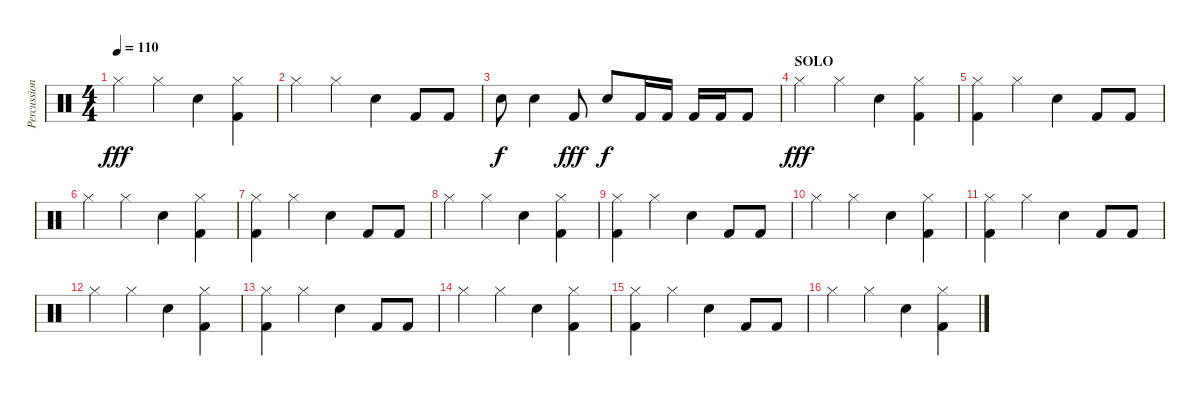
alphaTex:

\track ("Percussion" "Percussion") {instrument percussion}
\staff {score}
\articulation defaults
\ts (4 4)
\tempo 110
\clef neutral
\ks c "Hi-Hat (closed)".4{dy fff} "Hi-Hat (closed)".4 "Electric Snare (hit)".4
("Kick (hit) 2" "Hi-Hat (closed)").4 |
"Hi-Hat (closed)".4 "Hi-Hat (closed)".4 "Electric Snare (hit)".4 "Kick (hit) 2".8 "Kick (hit) 2".8 |
"Snare (hit) 2".8{dy f} "Electric Snare (hit)".4 "Kick (hit) 2".8{dy fff} "Electric Snare (hit)".8{dy f} "Kick (hit) 2".16 "Kick (hit) 2".16 "Kick (hit) 2".16 "Kick (hit) 2".16 "Kick (hit) 2".8 |
\section ("" "SOLO")
"Hi-Hat (closed)".4{dy fff} "Hi-Hat (closed)".4 "Electric Snare (hit)".4 ("Kick (hit) 2" "Hi-Hat (closed)").4 |
("Kick (hit) 2" "Hi-Hat (closed)").4 "Hi-Hat (closed)".4 "Electric Snare (hit)".4 "Kick (hit) 2".8 "Kick (hit) 2".8 |
"Hi-Hat (closed)".4 "Hi-Hat (closed)".4 "Electric Snare (hit)".4 ("Kick (hit) 2" "Hi-Hat (closed)").4 |
("Kick (hit) 2" "Hi-Hat (closed)").4 "Hi-Hat (closed)".4 "Electric Snare (hit)".4 "Kick (hit) 2".8 "Kick (hit) 2".8 |
"Hi-Hat (closed)".4 "Hi-Hat (closed)".4 "Electric Snare (hit)".4 ("Kick (hit) 2" "Hi-Hat (closed)").4 |
("Kick (hit) 2" "Hi-Hat (closed)").4 "Hi-Hat (closed)".4 "Electric Snare (hit)".4 "Kick (hit) 2".8 "Kick (hit) 2".8 |
"Hi-Hat (closed)".4 "Hi-Hat (closed)".4 "Electric Snare (hit)".4 ("Kick (hit) 2" "Hi-Hat (closed)").4 |
("Kick (hit) 2" "Hi-Hat (closed)").4 "Hi-Hat (closed)".4 "Electric Snare (hit)".4 "Kick (hit) 2".8 "Kick (hit) 2".8 |
"Hi-Hat (closed)".4 "Hi-Hat (closed)".4 "Electric Snare (hit)".4 ("Kick (hit) 2" "Hi-Hat (closed)").4 |
("Kick (hit) 2" "Hi-Hat (closed)").4 "Hi-Hat (closed)".4 "Electric Snare (hit)".4 "Kick (hit) 2".8 "Kick (hit) 2".8 |
"Hi-Hat (closed)".4 "Hi-Hat (closed)".4 "Electric Snare (hit)".4 ("Kick (hit) 2" "Hi-Hat (closed)").4 |
("Kick (hit) 2" "Hi-Hat (closed)").4 "Hi-Hat (closed)".4 "Electric Snare (hit)".4 "Kick (hit) 2".8 "Kick (hit) 2".8 |
"Hi-Hat (closed)".4 "Hi-Hat (closed)".4 "Electric Snare (hit)".4 ("Kick (hit) 2" "Hi-Hat (closed)").4
